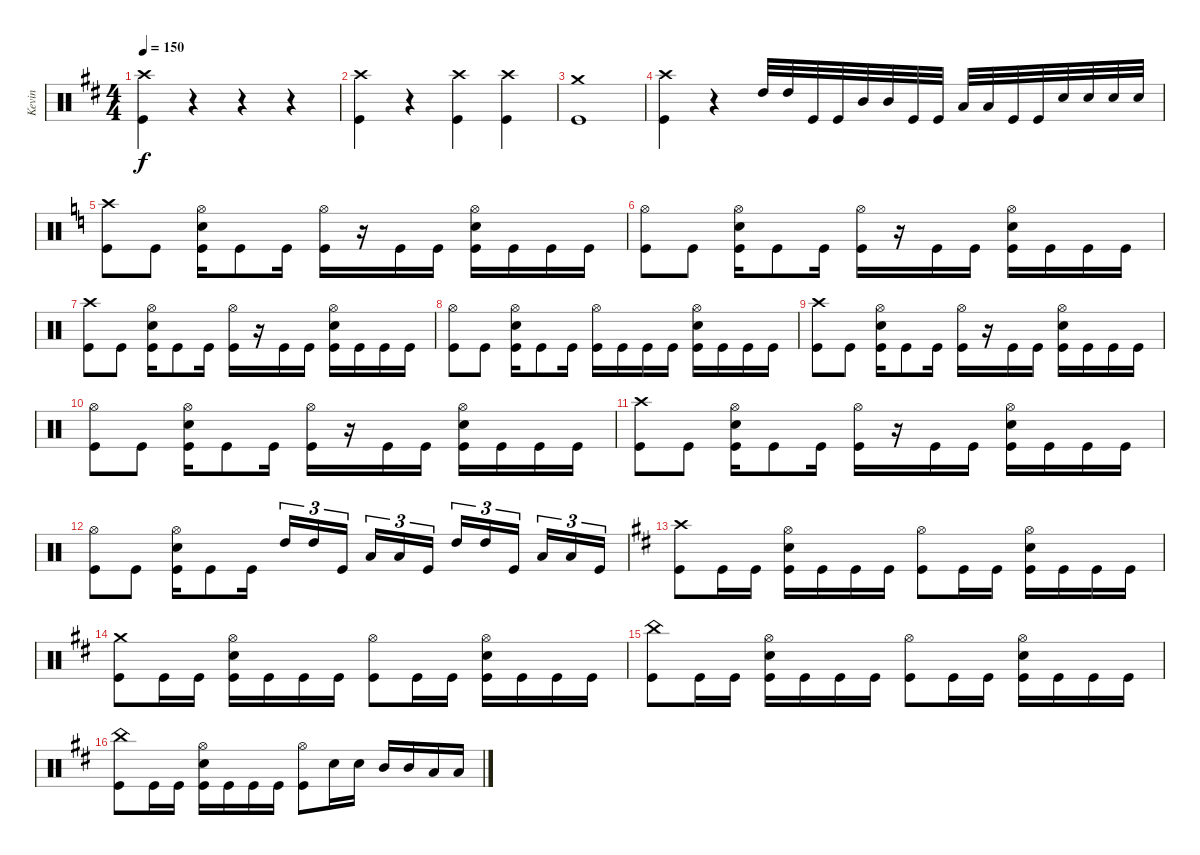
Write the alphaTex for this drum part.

\track ("Kevin" "Kevin") {instrument percussion}
\staff {score}
\articulation defaults
\ts (4 4)
\tempo 150
\clef neutral
\ks d
("Crash high (hit)" "Kick (hit)").4{dy f} r.4 r.4 r.4 |
("Crash high (hit)" "Kick (hit)").4 r.4 ("Crash high (hit)" "Kick (hit)").4 ("Crash high (hit)" "Kick (hit)").4 |
("Crash medium (hit)" "Kick (hit)").1 |
("Crash high (hit)" "Kick (hit)").4 r.4 "High Tom (hit)".32 "High Tom (hit)".32 "Kick (hit)".32 "Kick (hit)".32 "Mid Tom (hit)".32 "Mid Tom (hit)".32 "Kick (hit)".32 "Kick (hit)".32 "Low Tom (hit)".32 "Low Tom (hit)".32 "Kick (hit)".32 "Kick (hit)".32 "Snare (hit) 2".32 "Snare (hit) 2".32 "Snare (hit) 2".32 "Snare (hit) 2".32 |
\ks c
("Crash high (hit)" "Kick (hit)").8 "Kick (hit)".8 ("Hi-Hat (open)" "Snare (hit) 2" "Kick (hit)").16 "Kick (hit)".8 "Kick (hit)".16 ("Hi-Hat (open)" "Kick (hit)").16 r.16 "Kick (hit)".16 "Kick (hit)".16 ("Hi-Hat (open)" "Snare (hit) 2" "Kick (hit)").16 "Kick (hit)".16 "Kick (hit)".16 "Kick (hit)".16 |
("Hi-Hat (open)" "Kick (hit)").8 "Kick (hit)".8 ("Hi-Hat (open)" "Snare (hit) 2" "Kick (hit)").16 "Kick (hit)".8 "Kick (hit)".16 ("Hi-Hat (open)" "Kick (hit)").16 r.16 "Kick (hit)".16 "Kick (hit)".16 ("Hi-Hat (open)" "Snare (hit) 2" "Kick (hit)").16 "Kick (hit)".16 "Kick (hit)".16 "Kick (hit)".16 |
("Crash high (hit)" "Kick (hit)").8 "Kick (hit)".8 ("Hi-Hat (open)" "Snare (hit) 2" "Kick (hit)").16 "Kick (hit)".8 "Kick (hit)".16 ("Hi-Hat (open)" "Kick (hit)").16 r.16 "Kick (hit)".16 "Kick (hit)".16 ("Hi-Hat (open)" "Snare (hit) 2" "Kick (hit)").16 "Kick (hit)".16 "Kick (hit)".16 "Kick (hit)".16 |
("Hi-Hat (open)" "Kick (hit)").8 "Kick (hit)".8 ("Hi-Hat (open)" "Snare (hit) 2" "Kick (hit)").16 "Kick (hit)".8 "Kick (hit)".16 ("Hi-Hat (open)" "Kick (hit)").16 "Kick (hit)".16 "Kick (hit)".16 "Kick (hit)".16 ("Hi-Hat (open)" "Snare (hit) 2" "Kick (hit)").16 "Kick (hit)".16 "Kick (hit)".16 "Kick (hit)".16 |
("Crash high (hit)" "Kick (hit)").8 "Kick (hit)".8 ("Hi-Hat (open)" "Snare (hit) 2" "Kick (hit)").16 "Kick (hit)".8 "Kick (hit)".16 ("Hi-Hat (open)" "Kick (hit)").16 r.16 "Kick (hit)".16 "Kick (hit)".16 ("Hi-Hat (open)" "Snare (hit) 2" "Kick (hit)").16 "Kick (hit)".16 "Kick (hit)".16 "Kick (hit)".16 |
("Hi-Hat (open)" "Kick (hit)").8 "Kick (hit)".8 ("Hi-Hat (open)" "Snare (hit) 2" "Kick (hit)").16 "Kick (hit)".8 "Kick (hit)".16 ("Hi-Hat (open)" "Kick (hit)").16 r.16 "Kick (hit)".16 "Kick (hit)".16 ("Hi-Hat (open)" "Snare (hit) 2" "Kick (hit)").16 "Kick (hit)".16 "Kick (hit)".16 "Kick (hit)".16 |
("Crash high (hit)" "Kick (hit)").8 "Kick (hit)".8 ("Hi-Hat (open)" "Snare (hit) 2" "Kick (hit)").16 "Kick (hit)".8 "Kick (hit)".16 ("Hi-Hat (open)" "Kick (hit)").16 r.16 "Kick (hit)".16 "Kick (hit)".16 ("Hi-Hat (open)" "Snare (hit) 2" "Kick (hit)").16 "Kick (hit)".16 "Kick (hit)".16 "Kick (hit)".16 |
("Hi-Hat (open)" "Kick (hit)").8 "Kick (hit)".8 ("Hi-Hat (open)" "Snare (hit) 2" "Kick (hit)").16 "Kick (hit)".8 "Kick (hit)".16 "High Tom (hit)".16{tu (3 2)} "High Tom (hit)".16{tu (3 2)} "Kick (hit)".16{tu (3 2) beam splitsecondary} "Low Tom (hit)".16{tu (3 2)} "Low Tom (hit)".16{tu (3 2)} "Kick (hit)".16{tu (3 2)} "High Tom (hit)".16{tu (3 2)} "High Tom (hit)".16{tu (3 2)} "Kick (hit)".16{tu (3 2) beam splitsecondary} "Low Tom (hit)".16{tu (3 2)} "Low Tom (hit)".16{tu (3 2)} "Kick (hit)".16{tu (3 2)} |
\ks d
("Crash high (hit)" "Kick (hit)").8 "Kick (hit)".16 "Kick (hit)".16 ("Hi-Hat (open)" "Snare (hit) 2" "Kick (hit)").16 "Kick (hit)".16 "Kick (hit)".16 "Kick (hit)".16 ("Hi-Hat (open)" "Kick (hit)").8 "Kick (hit)".16 "Kick (hit)".16 ("Hi-Hat (open)" "Snare (hit) 2" "Kick (hit)").16 "Kick (hit)".16 "Kick (hit)".16 "Kick (hit)".16 |
("Crash medium (hit)" "Kick (hit)").8 "Kick (hit)".16 "Kick (hit)".16 ("Hi-Hat (open)" "Snare (hit) 2" "Kick (hit)").16 "Kick (hit)".16 "Kick (hit)".16 "Kick (hit)".16 ("Hi-Hat (open)" "Kick (hit)").8 "Kick (hit)".16 "Kick (hit)".16 ("Hi-Hat (open)" "Snare (hit) 2" "Kick (hit)").16 "Kick (hit)".16 "Kick (hit)".16 "Kick (hit)".16 |
("China (hit)" "Kick (hit)").8 "Kick (hit)".16 "Kick (hit)".16 ("Hi-Hat (open)" "Snare (hit) 2" "Kick (hit)").16 "Kick (hit)".16 "Kick (hit)".16 "Kick (hit)".16 ("Hi-Hat (open)" "Kick (hit)").8 "Kick (hit)".16 "Kick (hit)".16 ("Hi-Hat (open)" "Snare (hit) 2" "Kick (hit)").16 "Kick (hit)".16 "Kick (hit)".16 "Kick (hit)".16 |
("China (hit)" "Kick (hit)").8 "Kick (hit)".16 "Kick (hit)".16 ("Hi-Hat (open)" "Snare (hit) 2" "Kick (hit)").16 "Kick (hit)".16 "Kick (hit)".16 "Kick (hit)".16 ("Hi-Hat (open)" "Kick (hit)").8 "Snare (hit) 2".16 "Snare (hit) 2".16 "Mid Tom (hit)".16 "Mid Tom (hit)".16 "Low Tom (hit)".16 "Low Tom (hit)".16
